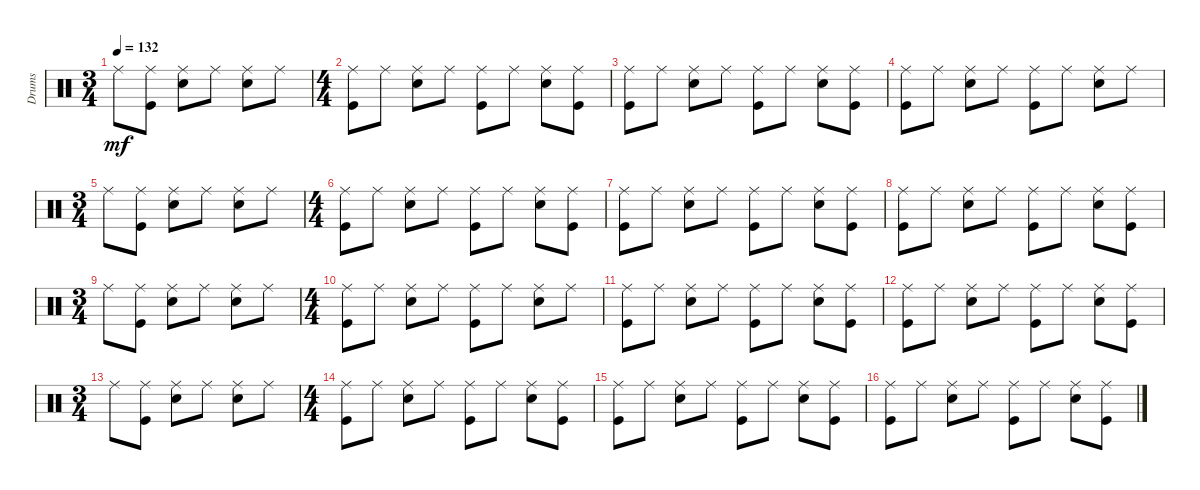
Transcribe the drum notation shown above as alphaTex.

\track ("Drums" "Drums") {instrument percussion}
\staff {score}
\articulation defaults
\ts (3 4)
\tempo 132
\clef neutral
\ks c "Ride (middle)".8{dy mf}
("Kick (hit)" "Ride (middle)").8 ("Electric Snare (hit)" "Ride (middle)").8 "Ride (middle)".8 ("Electric Snare (hit)" "Ride (middle)").8 "Ride (middle)".8 |
\ts (4 4)
("Kick (hit)" "Ride (middle)").8 "Ride (middle)".8 ("Electric Snare (hit)" "Ride (middle)").8 "Ride (middle)".8 ("Kick (hit)" "Ride (middle)").8 "Ride (middle)".8 ("Electric Snare (hit)" "Ride (middle)").8 ("Kick (hit)" "Ride (middle)").8 |
("Kick (hit)" "Ride (middle)").8 "Ride (middle)".8 ("Electric Snare (hit)" "Ride (middle)").8 "Ride (middle)".8 ("Kick (hit)" "Ride (middle)").8 "Ride (middle)".8 ("Electric Snare (hit)" "Ride (middle)").8 ("Kick (hit)" "Ride (middle)").8 |
("Kick (hit)" "Ride (middle)").8 "Ride (middle)".8 ("Electric Snare (hit)" "Ride (middle)").8 "Ride (middle)".8 ("Kick (hit)" "Ride (middle)").8 "Ride (middle)".8 ("Electric Snare (hit)" "Ride (middle)").8 "Ride (middle)".8 |
\ts (3 4)
"Ride (middle)".8 ("Kick (hit)" "Ride (middle)").8 ("Electric Snare (hit)" "Ride (middle)").8 "Ride (middle)".8 ("Electric Snare (hit)" "Ride (middle)").8 "Ride (middle)".8 |
\ts (4 4)
("Kick (hit)" "Ride (middle)").8 "Ride (middle)".8 ("Electric Snare (hit)" "Ride (middle)").8 "Ride (middle)".8 ("Kick (hit)" "Ride (middle)").8 "Ride (middle)".8 ("Electric Snare (hit)" "Ride (middle)").8 ("Kick (hit)" "Ride (middle)").8 |
("Kick (hit)" "Ride (middle)").8 "Ride (middle)".8 ("Electric Snare (hit)" "Ride (middle)").8 "Ride (middle)".8 ("Kick (hit)" "Ride (middle)").8 "Ride (middle)".8 ("Electric Snare (hit)" "Ride (middle)").8 ("Kick (hit)" "Ride (middle)").8 |
("Kick (hit)" "Ride (middle)").8 "Ride (middle)".8 ("Electric Snare (hit)" "Ride (middle)").8 "Ride (middle)".8 ("Kick (hit)" "Ride (middle)").8 "Ride (middle)".8 ("Electric Snare (hit)" "Ride (middle)").8 ("Kick (hit)" "Ride (middle)").8 |
\ts (3 4)
"Ride (middle)".8 ("Kick (hit)" "Ride (middle)").8 ("Electric Snare (hit)" "Ride (middle)").8 "Ride (middle)".8 ("Electric Snare (hit)" "Ride (middle)").8 "Ride (middle)".8 |
\ts (4 4)
("Kick (hit)" "Ride (middle)").8 "Ride (middle)".8 ("Electric Snare (hit)" "Ride (middle)").8 "Ride (middle)".8 ("Kick (hit)" "Ride (middle)").8 "Ride (middle)".8 ("Electric Snare (hit)" "Ride (middle)").8 "Ride (middle)".8 |
("Kick (hit)" "Ride (middle)").8 "Ride (middle)".8 ("Electric Snare (hit)" "Ride (middle)").8 "Ride (middle)".8 ("Kick (hit)" "Ride (middle)").8 "Ride (middle)".8 ("Electric Snare (hit)" "Ride (middle)").8 ("Kick (hit)" "Ride (middle)").8 |
("Kick (hit)" "Ride (middle)").8 "Ride (middle)".8 ("Electric Snare (hit)" "Ride (middle)").8 "Ride (middle)".8 ("Kick (hit)" "Ride (middle)").8 "Ride (middle)".8 ("Electric Snare (hit)" "Ride (middle)").8 ("Kick (hit)" "Ride (middle)").8 |
\ts (3 4)
"Ride (middle)".8 ("Kick (hit)" "Ride (middle)").8 ("Electric Snare (hit)" "Ride (middle)").8 "Ride (middle)".8 ("Electric Snare (hit)" "Ride (middle)").8 "Ride (middle)".8 |
\ts (4 4)
("Kick (hit)" "Ride (middle)").8 "Ride (middle)".8 ("Electric Snare (hit)" "Ride (middle)").8 "Ride (middle)".8 ("Kick (hit)" "Ride (middle)").8 "Ride (middle)".8 ("Electric Snare (hit)" "Ride (middle)").8 ("Kick (hit)" "Ride (middle)").8 |
("Kick (hit)" "Ride (middle)").8 "Ride (middle)".8 ("Electric Snare (hit)" "Ride (middle)").8 "Ride (middle)".8 ("Kick (hit)" "Ride (middle)").8 "Ride (middle)".8 ("Electric Snare (hit)" "Ride (middle)").8 ("Kick (hit)" "Ride (middle)").8 |
("Kick (hit)" "Ride (middle)").8 "Ride (middle)".8 ("Electric Snare (hit)" "Ride (middle)").8 "Ride (middle)".8 ("Kick (hit)" "Ride (middle)").8 "Ride (middle)".8 ("Electric Snare (hit)" "Ride (middle)").8 ("Kick (hit)" "Ride (middle)").8
